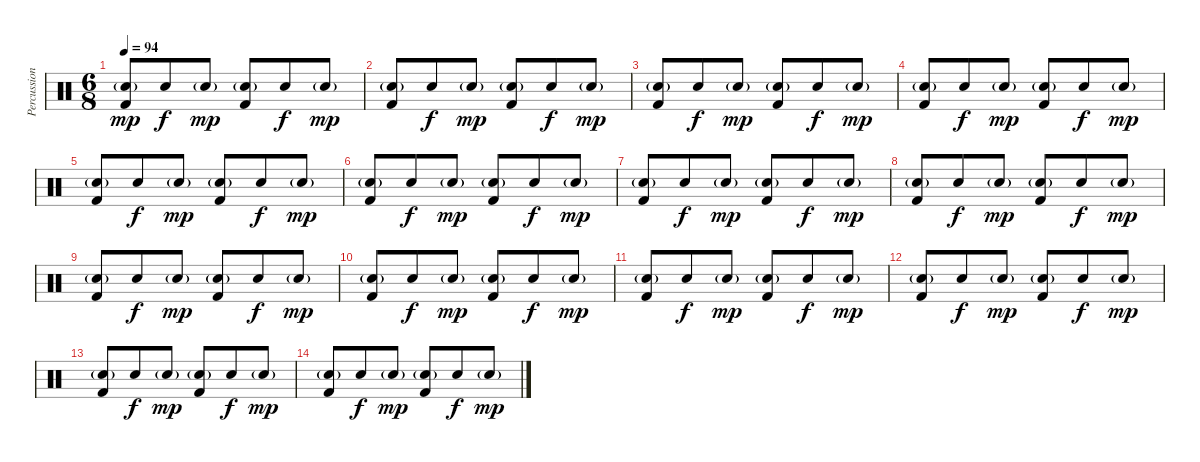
\track ("Percussion" "Percussion") {instrument percussion}
\staff {score}
\articulation defaults
\ts (6 8)
\tempo 94
\clef neutral
\ks c
("Snare (hit) 2"{g} "Kick (hit) 2").8{dy mp} "Snare (hit) 2".8{dy f} "Snare (hit) 2"{g}.8{dy mp} ("Snare (hit) 2"{g} "Kick (hit) 2").8 "Snare (hit) 2".8{dy f} "Snare (hit) 2"{g}.8{dy mp} |
("Snare (hit) 2"{g} "Kick (hit) 2").8 "Snare (hit) 2".8{dy f} "Snare (hit) 2"{g}.8{dy mp} ("Snare (hit) 2"{g} "Kick (hit) 2").8 "Snare (hit) 2".8{dy f} "Snare (hit) 2"{g}.8{dy mp} |
("Snare (hit) 2"{g} "Kick (hit) 2").8 "Snare (hit) 2".8{dy f} "Snare (hit) 2"{g}.8{dy mp} ("Snare (hit) 2"{g} "Kick (hit) 2").8 "Snare (hit) 2".8{dy f} "Snare (hit) 2"{g}.8{dy mp} |
("Snare (hit) 2"{g} "Kick (hit) 2").8 "Snare (hit) 2".8{dy f} "Snare (hit) 2"{g}.8{dy mp} ("Snare (hit) 2"{g} "Kick (hit) 2").8 "Snare (hit) 2".8{dy f} "Snare (hit) 2"{g}.8{dy mp} |
("Snare (hit) 2"{g} "Kick (hit) 2").8 "Snare (hit) 2".8{dy f} "Snare (hit) 2"{g}.8{dy mp} ("Snare (hit) 2"{g} "Kick (hit) 2").8 "Snare (hit) 2".8{dy f} "Snare (hit) 2"{g}.8{dy mp} |
("Snare (hit) 2"{g} "Kick (hit) 2").8 "Snare (hit) 2".8{dy f} "Snare (hit) 2"{g}.8{dy mp} ("Snare (hit) 2"{g} "Kick (hit) 2").8 "Snare (hit) 2".8{dy f} "Snare (hit) 2"{g}.8{dy mp} |
("Snare (hit) 2"{g} "Kick (hit) 2").8 "Snare (hit) 2".8{dy f} "Snare (hit) 2"{g}.8{dy mp} ("Snare (hit) 2"{g} "Kick (hit) 2").8 "Snare (hit) 2".8{dy f} "Snare (hit) 2"{g}.8{dy mp} |
("Snare (hit) 2"{g} "Kick (hit) 2").8 "Snare (hit) 2".8{dy f} "Snare (hit) 2"{g}.8{dy mp} ("Snare (hit) 2"{g} "Kick (hit) 2").8 "Snare (hit) 2".8{dy f} "Snare (hit) 2"{g}.8{dy mp} |
("Snare (hit) 2"{g} "Kick (hit) 2").8 "Snare (hit) 2".8{dy f} "Snare (hit) 2"{g}.8{dy mp} ("Snare (hit) 2"{g} "Kick (hit) 2").8 "Snare (hit) 2".8{dy f} "Snare (hit) 2"{g}.8{dy mp} |
("Snare (hit) 2"{g} "Kick (hit) 2").8 "Snare (hit) 2".8{dy f} "Snare (hit) 2"{g}.8{dy mp} ("Snare (hit) 2"{g} "Kick (hit) 2").8 "Snare (hit) 2".8{dy f} "Snare (hit) 2"{g}.8{dy mp} |
("Snare (hit) 2"{g} "Kick (hit) 2").8 "Snare (hit) 2".8{dy f} "Snare (hit) 2"{g}.8{dy mp} ("Snare (hit) 2"{g} "Kick (hit) 2").8 "Snare (hit) 2".8{dy f} "Snare (hit) 2"{g}.8{dy mp} |
("Snare (hit) 2"{g} "Kick (hit) 2").8 "Snare (hit) 2".8{dy f} "Snare (hit) 2"{g}.8{dy mp} ("Snare (hit) 2"{g} "Kick (hit) 2").8 "Snare (hit) 2".8{dy f} "Snare (hit) 2"{g}.8{dy mp} |
("Snare (hit) 2"{g} "Kick (hit) 2").8 "Snare (hit) 2".8{dy f} "Snare (hit) 2"{g}.8{dy mp} ("Snare (hit) 2"{g} "Kick (hit) 2").8 "Snare (hit) 2".8{dy f} "Snare (hit) 2"{g}.8{dy mp} |
("Snare (hit) 2"{g} "Kick (hit) 2").8 "Snare (hit) 2".8{dy f} "Snare (hit) 2"{g}.8{dy mp} ("Snare (hit) 2"{g} "Kick (hit) 2").8 "Snare (hit) 2".8{dy f} "Snare (hit) 2"{g}.8{dy mp}
